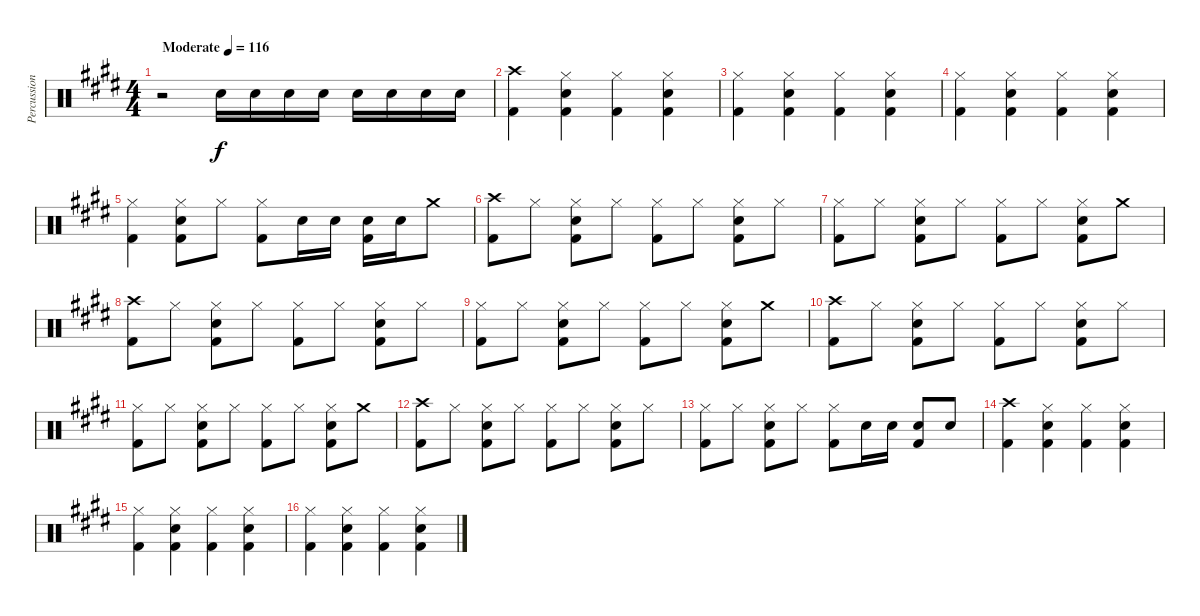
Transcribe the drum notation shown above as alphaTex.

\track ("Percussion" "Percussion") {instrument percussion}
\staff {score}
\articulation defaults
\ts (4 4)
\tempo (116 "Moderate")
\clef neutral
\ks e
r.2{dy f} "Snare (hit) 2".16 "Snare (hit) 2".16 "Snare (hit) 2".16 "Snare (hit) 2".16 "Snare (hit) 2".16 "Snare (hit) 2".16 "Snare (hit) 2".16 "Snare (hit) 2".16 |
("Crash high (hit)" "Kick (hit) 2").4 ("Hi-Hat (closed)" "Snare (hit) 2" "Kick (hit) 2").4 ("Hi-Hat (closed)" "Kick (hit) 2").4 ("Hi-Hat (closed)" "Snare (hit) 2" "Kick (hit) 2").4 |
("Hi-Hat (closed)" "Kick (hit) 2").4 ("Hi-Hat (closed)" "Snare (hit) 2" "Kick (hit) 2").4 ("Hi-Hat (closed)" "Kick (hit) 2").4 ("Hi-Hat (closed)" "Snare (hit) 2" "Kick (hit) 2").4 |
("Hi-Hat (closed)" "Kick (hit) 2").4 ("Hi-Hat (closed)" "Snare (hit) 2" "Kick (hit) 2").4 ("Hi-Hat (closed)" "Kick (hit) 2").4 ("Hi-Hat (closed)" "Snare (hit) 2" "Kick (hit) 2").4 |
("Hi-Hat (closed)" "Kick (hit) 2").4 ("Hi-Hat (closed)" "Snare (hit) 2" "Kick (hit) 2").8 "Hi-Hat (closed)".8 ("Hi-Hat (closed)" "Kick (hit) 2").8 "Snare (hit) 2".16 "Snare (hit) 2".16 ("Snare (hit) 2" "Kick (hit) 2").16 "Snare (hit) 2".16 "Crash medium (hit)".8 |
("Crash high (hit)" "Kick (hit) 2").8 "Hi-Hat (closed)".8 ("Hi-Hat (closed)" "Snare (hit) 2" "Kick (hit) 2").8 "Hi-Hat (closed)".8 ("Hi-Hat (closed)" "Kick (hit) 2").8 "Hi-Hat (closed)".8 ("Hi-Hat (closed)" "Snare (hit) 2" "Kick (hit) 2").8 "Hi-Hat (closed)".8 |
("Hi-Hat (closed)" "Kick (hit) 2").8 "Hi-Hat (closed)".8 ("Hi-Hat (closed)" "Snare (hit) 2" "Kick (hit) 2").8 "Hi-Hat (closed)".8 ("Hi-Hat (closed)" "Kick (hit) 2").8 "Hi-Hat (closed)".8 ("Hi-Hat (closed)" "Snare (hit) 2" "Kick (hit) 2").8 "Crash medium (hit)".8 |
("Crash high (hit)" "Kick (hit) 2").8 "Hi-Hat (closed)".8 ("Hi-Hat (closed)" "Snare (hit) 2" "Kick (hit) 2").8 "Hi-Hat (closed)".8 ("Hi-Hat (closed)" "Kick (hit) 2").8 "Hi-Hat (closed)".8 ("Hi-Hat (closed)" "Snare (hit) 2" "Kick (hit) 2").8 "Hi-Hat (closed)".8 |
("Hi-Hat (closed)" "Kick (hit) 2").8 "Hi-Hat (closed)".8 ("Hi-Hat (closed)" "Snare (hit) 2" "Kick (hit) 2").8 "Hi-Hat (closed)".8 ("Hi-Hat (closed)" "Kick (hit) 2").8 "Hi-Hat (closed)".8 ("Hi-Hat (closed)" "Snare (hit) 2" "Kick (hit) 2").8 "Crash medium (hit)".8 |
("Crash high (hit)" "Kick (hit) 2").8 "Hi-Hat (closed)".8 ("Hi-Hat (closed)" "Snare (hit) 2" "Kick (hit) 2").8 "Hi-Hat (closed)".8 ("Hi-Hat (closed)" "Kick (hit) 2").8 "Hi-Hat (closed)".8 ("Hi-Hat (closed)" "Snare (hit) 2" "Kick (hit) 2").8 "Hi-Hat (closed)".8 |
("Hi-Hat (closed)" "Kick (hit) 2").8 "Hi-Hat (closed)".8 ("Hi-Hat (closed)" "Snare (hit) 2" "Kick (hit) 2").8 "Hi-Hat (closed)".8 ("Hi-Hat (closed)" "Kick (hit) 2").8 "Hi-Hat (closed)".8 ("Hi-Hat (closed)" "Snare (hit) 2" "Kick (hit) 2").8 "Crash medium (hit)".8 |
("Crash high (hit)" "Kick (hit) 2").8 "Hi-Hat (closed)".8 ("Hi-Hat (closed)" "Snare (hit) 2" "Kick (hit) 2").8 "Hi-Hat (closed)".8 ("Hi-Hat (closed)" "Kick (hit) 2").8 "Hi-Hat (closed)".8 ("Hi-Hat (closed)" "Snare (hit) 2" "Kick (hit) 2").8 "Hi-Hat (closed)".8 |
("Hi-Hat (closed)" "Kick (hit) 2").8 "Hi-Hat (closed)".8 ("Hi-Hat (closed)" "Snare (hit) 2" "Kick (hit) 2").8 "Hi-Hat (closed)".8 ("Hi-Hat (closed)" "Kick (hit) 2").8 "Snare (hit) 2".16 "Snare (hit) 2".16 ("Snare (hit) 2" "Kick (hit) 2").8 "Snare (hit) 2".8 |
("Crash high (hit)" "Kick (hit) 2").4 ("Hi-Hat (closed)" "Snare (hit) 2" "Kick (hit) 2").4 ("Hi-Hat (closed)" "Kick (hit) 2").4 ("Hi-Hat (closed)" "Snare (hit) 2" "Kick (hit) 2").4 |
("Hi-Hat (closed)" "Kick (hit) 2").4 ("Hi-Hat (closed)" "Snare (hit) 2" "Kick (hit) 2").4 ("Hi-Hat (closed)" "Kick (hit) 2").4 ("Hi-Hat (closed)" "Snare (hit) 2" "Kick (hit) 2").4 |
("Hi-Hat (closed)" "Kick (hit) 2").4 ("Hi-Hat (closed)" "Snare (hit) 2" "Kick (hit) 2").4 ("Hi-Hat (closed)" "Kick (hit) 2").4 ("Hi-Hat (closed)" "Snare (hit) 2" "Kick (hit) 2").4
